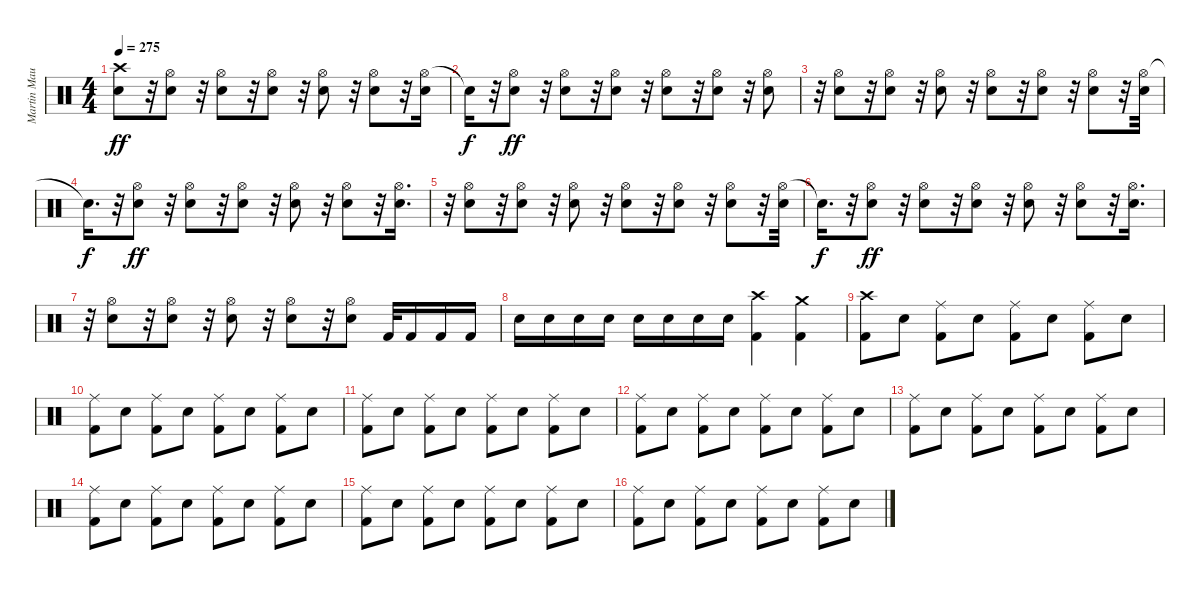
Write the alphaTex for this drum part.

\track ("Martin Maurais " "Martin Mau") {instrument percussion}
\staff {score}
\articulation defaults
\ts (4 4)
\tempo 275
\clef neutral
\ks c
("Crash high (hit)" "Snare (hit) 2").8{dy ff} r.32 ("Hi-Hat (open)" "Snare (hit) 2").8 r.32 ("Hi-Hat (open)" "Snare (hit) 2").8 r.32 ("Hi-Hat (open)" "Snare (hit) 2").8 r.32 ("Hi-Hat (open)" "Snare (hit) 2").8 r.32 ("Hi-Hat (open)" "Snare (hit) 2").8 r.32 ("Hi-Hat (open)" "Snare (hit) 2").16 |
"Snare (hit)"{t}.16{dy f} r.32 ("Hi-Hat (open)" "Snare (hit) 2").8{dy ff} r.32 ("Hi-Hat (open)" "Snare (hit) 2").8 r.32 ("Hi-Hat (open)" "Snare (hit) 2").8 r.32 ("Hi-Hat (open)" "Snare (hit) 2").8 r.32 ("Hi-Hat (open)" "Snare (hit) 2").8 r.32 ("Hi-Hat (open)" "Snare (hit) 2").8 |
r.32 ("Hi-Hat (open)" "Snare (hit) 2").8 r.32 ("Hi-Hat (open)" "Snare (hit) 2").8 r.32 ("Hi-Hat (open)" "Snare (hit) 2").8 r.32 ("Hi-Hat (open)" "Snare (hit) 2").8 r.32 ("Hi-Hat (open)" "Snare (hit) 2").8 r.32 ("Hi-Hat (open)" "Snare (hit) 2").8 r.32 ("Hi-Hat (open)" "Snare (hit) 2").32 |
"Snare (hit)"{t}.16{d dy f} r.32 ("Hi-Hat (open)" "Snare (hit) 2").8{dy ff} r.32 ("Hi-Hat (open)" "Snare (hit) 2").8 r.32 ("Hi-Hat (open)" "Snare (hit) 2").8 r.32 ("Hi-Hat (open)" "Snare (hit) 2").8 r.32 ("Hi-Hat (open)" "Snare (hit) 2").8 r.32 ("Hi-Hat (open)" "Snare (hit) 2").16{d} |
r.32 ("Hi-Hat (open)" "Snare (hit) 2").8 r.32 ("Hi-Hat (open)" "Snare (hit) 2").8 r.32 ("Hi-Hat (open)" "Snare (hit) 2").8 r.32 ("Hi-Hat (open)" "Snare (hit) 2").8 r.32 ("Hi-Hat (open)" "Snare (hit) 2").8 r.32 ("Hi-Hat (open)" "Snare (hit) 2").8 r.32 ("Hi-Hat (open)" "Snare (hit) 2").32 |
"Snare (hit)"{t}.16{d dy f} r.32 ("Hi-Hat (open)" "Snare (hit) 2").8{dy ff} r.32 ("Hi-Hat (open)" "Snare (hit) 2").8 r.32 ("Hi-Hat (open)" "Snare (hit) 2").8 r.32 ("Hi-Hat (open)" "Snare (hit) 2").8 r.32 ("Hi-Hat (open)" "Snare (hit) 2").8 r.32 ("Hi-Hat (open)" "Snare (hit) 2").16{d} |
r.32 ("Hi-Hat (open)" "Snare (hit) 2").8 r.32 ("Hi-Hat (open)" "Snare (hit) 2").8 r.32 ("Hi-Hat (open)" "Snare (hit) 2").8 r.32 ("Hi-Hat (open)" "Snare (hit) 2").8 r.32 ("Hi-Hat (open)" "Snare (hit) 2").8 "Kick (hit) 2".32 "Kick (hit) 2".16 "Kick (hit) 2".16 "Kick (hit) 2".16 |
"Snare (hit) 2".16 "Snare (hit) 2".16 "Snare (hit) 2".16 "Snare (hit) 2".16 "Snare (hit) 2".16 "Snare (hit) 2".16 "Snare (hit) 2".16 "Snare (hit) 2".16 ("Crash high (hit)" "Kick (hit) 2").4 ("Crash medium (hit)" "Kick (hit) 2").4 |
("Crash high (hit)" "Kick (hit) 2").8 "Snare (hit) 2".8 ("Ride (middle)" "Kick (hit) 2").8 "Snare (hit) 2".8 ("Ride (middle)" "Kick (hit) 2").8 "Snare (hit) 2".8 ("Ride (middle)" "Kick (hit) 2").8 "Snare (hit) 2".8 |
("Ride (middle)" "Kick (hit) 2").8 "Snare (hit) 2".8 ("Ride (middle)" "Kick (hit) 2").8 "Snare (hit) 2".8 ("Ride (middle)" "Kick (hit) 2").8 "Snare (hit) 2".8 ("Ride (middle)" "Kick (hit) 2").8 "Snare (hit) 2".8 |
("Ride (middle)" "Kick (hit) 2").8 "Snare (hit) 2".8 ("Ride (middle)" "Kick (hit) 2").8 "Snare (hit) 2".8 ("Ride (middle)" "Kick (hit) 2").8 "Snare (hit) 2".8 ("Ride (middle)" "Kick (hit) 2").8 "Snare (hit) 2".8 |
("Ride (middle)" "Kick (hit) 2").8 "Snare (hit) 2".8 ("Ride (middle)" "Kick (hit) 2").8 "Snare (hit) 2".8 ("Ride (middle)" "Kick (hit) 2").8 "Snare (hit) 2".8 ("Ride (middle)" "Kick (hit) 2").8 "Snare (hit) 2".8 |
("Ride (middle)" "Kick (hit) 2").8 "Snare (hit) 2".8 ("Ride (middle)" "Kick (hit) 2").8 "Snare (hit) 2".8 ("Ride (middle)" "Kick (hit) 2").8 "Snare (hit) 2".8 ("Ride (middle)" "Kick (hit) 2").8 "Snare (hit) 2".8 |
("Ride (middle)" "Kick (hit) 2").8 "Snare (hit) 2".8 ("Ride (middle)" "Kick (hit) 2").8 "Snare (hit) 2".8 ("Ride (middle)" "Kick (hit) 2").8 "Snare (hit) 2".8 ("Ride (middle)" "Kick (hit) 2").8 "Snare (hit) 2".8 |
("Ride (middle)" "Kick (hit) 2").8 "Snare (hit) 2".8 ("Ride (middle)" "Kick (hit) 2").8 "Snare (hit) 2".8 ("Ride (middle)" "Kick (hit) 2").8 "Snare (hit) 2".8 ("Ride (middle)" "Kick (hit) 2").8 "Snare (hit) 2".8 |
("Ride (middle)" "Kick (hit) 2").8 "Snare (hit) 2".8 ("Ride (middle)" "Kick (hit) 2").8 "Snare (hit) 2".8 ("Ride (middle)" "Kick (hit) 2").8 "Snare (hit) 2".8 ("Ride (middle)" "Kick (hit) 2").8 "Snare (hit) 2".8
